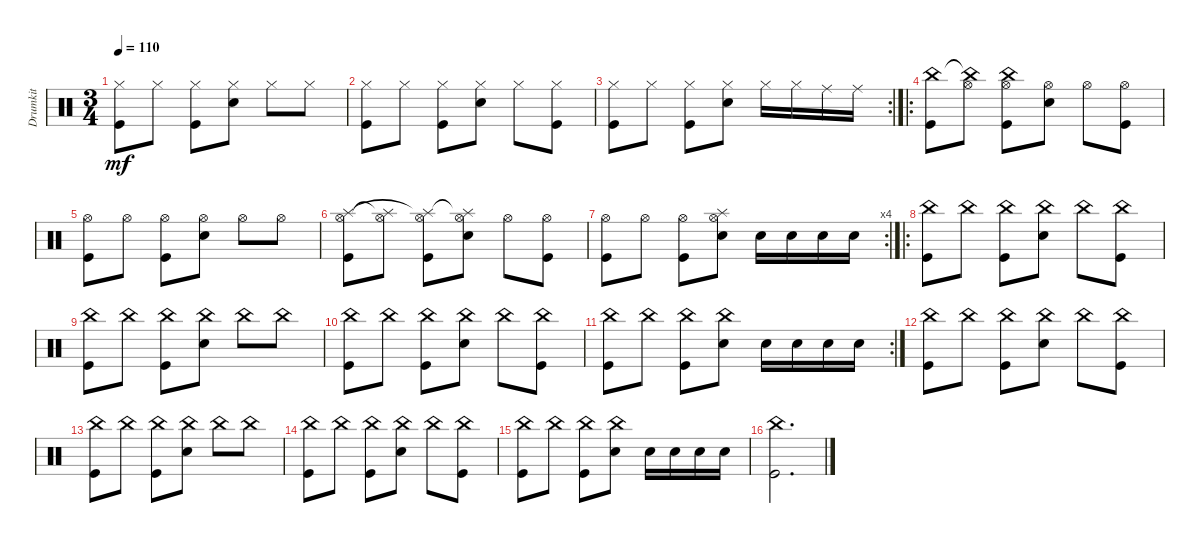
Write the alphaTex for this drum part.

\track ("Drumkit" "Drumkit") {instrument percussion}
\staff {score}
\articulation defaults
\ts (3 4)
\tempo 110
\clef neutral
\ks c
("Kick (hit)" "Hi-Hat (closed)").8{dy mf} "Hi-Hat (closed)".8 ("Kick (hit)" "Hi-Hat (closed)").8 ("Snare (hit) 2" "Hi-Hat (closed)").8 "Hi-Hat (closed)".8 "Hi-Hat (closed)".8 |
("Kick (hit)" "Hi-Hat (closed)").8 "Hi-Hat (closed)".8 ("Kick (hit)" "Hi-Hat (closed)").8 ("Snare (hit) 2" "Hi-Hat (closed)").8 "Hi-Hat (closed)".8 ("Kick (hit)" "Hi-Hat (closed)").8 |
\rc 2
("Kick (hit)" "Hi-Hat (closed)").8 "Hi-Hat (closed)".8 ("Kick (hit)" "Hi-Hat (closed)").8 ("Snare (hit) 2" "Hi-Hat (closed)").8 "Hi-Hat (closed)".16 "Hi-Hat (closed)".16 "Ride (middle)".16 "Ride (middle)".16 |
\ro
("Kick (hit)" "China (hit)").8 ("Hi-Hat (open)" "China (hit)"{t}).8 ("Kick (hit)" "Hi-Hat (open)" "China (hit)").8 ("Snare (hit) 2" "Hi-Hat (open)").8 "Hi-Hat (open)".8 ("Kick (hit)" "Hi-Hat (open)").8 |
("Kick (hit)" "Hi-Hat (open)").8 "Hi-Hat (open)".8 ("Kick (hit)" "Hi-Hat (open)").8 ("Snare (hit) 2" "Hi-Hat (open)").8 "Hi-Hat (open)".8 "Hi-Hat (open)".8 |
("Kick (hit)" "Hi-Hat (open)" "Splash (hit)").8 ("Hi-Hat (open)" "Splash (hit)"{t}).8 ("Kick (hit)" "Hi-Hat (open)" "Splash (hit)"{t}).8 ("Snare (hit) 2" "Hi-Hat (open)" "Splash (hit)"{t}).8 "Hi-Hat (open)".8 ("Kick (hit)" "Hi-Hat (open)").8 |
\rc 4
("Kick (hit)" "Hi-Hat (open)").8 "Hi-Hat (open)".8 ("Kick (hit)" "Hi-Hat (open)").8 ("Snare (hit) 2" "Hi-Hat (open)" "Splash (hit)").8 "Snare (hit) 2".16 "Snare (hit) 2".16 "Snare (hit) 2".16 "Snare (hit) 2".16 |
\ro
("Kick (hit)" "China (hit)").8 "China (hit)".8 ("Kick (hit)" "China (hit)").8 ("Snare (hit) 2" "China (hit)").8 "China (hit)".8 ("Kick (hit)" "China (hit)").8 |
("Kick (hit)" "China (hit)").8 "China (hit)".8 ("Kick (hit)" "China (hit)").8 ("Snare (hit) 2" "China (hit)").8 "China (hit)".8 "China (hit)".8 |
("Kick (hit)" "China (hit)").8 "China (hit)".8 ("Kick (hit)" "China (hit)").8 ("Snare (hit) 2" "China (hit)").8 "China (hit)".8 ("Kick (hit)" "China (hit)").8 |
\rc 2
("Kick (hit)" "China (hit)").8 "China (hit)".8 ("Kick (hit)" "China (hit)").8 ("Snare (hit) 2" "China (hit)").8 "Snare (hit) 2".16 "Snare (hit) 2".16 "Snare (hit) 2".16 "Snare (hit) 2".16 |
("Kick (hit)" "China (hit)").8 "China (hit)".8 ("Kick (hit)" "China (hit)").8 ("Snare (hit) 2" "China (hit)").8 "China (hit)".8 ("Kick (hit)" "China (hit)").8 |
("Kick (hit)" "China (hit)").8 "China (hit)".8 ("Kick (hit)" "China (hit)").8 ("Snare (hit) 2" "China (hit)").8 "China (hit)".8 "China (hit)".8 |
("Kick (hit)" "China (hit)").8 "China (hit)".8 ("Kick (hit)" "China (hit)").8 ("Snare (hit) 2" "China (hit)").8 "China (hit)".8 ("Kick (hit)" "China (hit)").8 |
("Kick (hit)" "China (hit)").8 "China (hit)".8 ("Kick (hit)" "China (hit)").8 ("Snare (hit) 2" "China (hit)").8 "Snare (hit) 2".16 "Snare (hit) 2".16 "Snare (hit) 2".16 "Snare (hit) 2".16 |
("Kick (hit)" "China (hit)").2{d}
